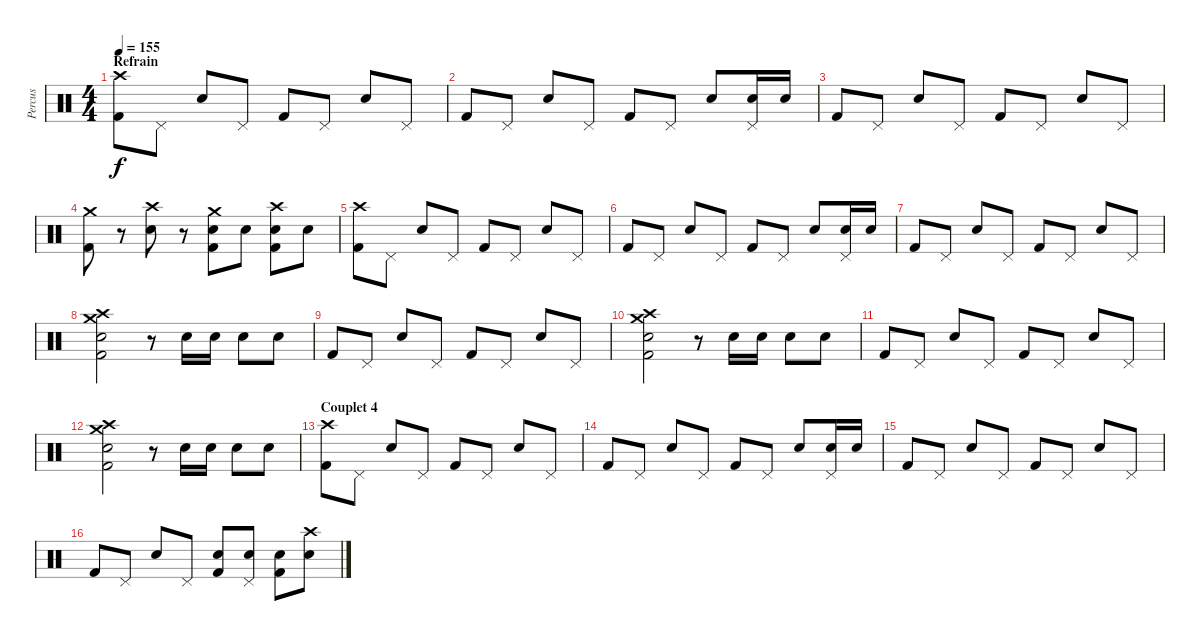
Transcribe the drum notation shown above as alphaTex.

\track ("Percus" "Percus") {instrument percussion}
\staff {score}
\articulation defaults
\ts (4 4)
\section ("" "Refrain")
\tempo 155
\clef neutral
\ks c
("Crash high (hit)" "Kick (hit) 2").8{dy f} "Pedal Hi-Hat (hit)".8 "Snare (hit) 2".8 "Pedal Hi-Hat (hit)".8 "Kick (hit) 2".8 "Pedal Hi-Hat (hit)".8 "Snare (hit) 2".8 "Pedal Hi-Hat (hit)".8 |
"Kick (hit) 2".8 "Pedal Hi-Hat (hit)".8 "Snare (hit) 2".8 "Pedal Hi-Hat (hit)".8 "Kick (hit) 2".8 "Pedal Hi-Hat (hit)".8 "Snare (hit) 2".8 ("Pedal Hi-Hat (hit)" "Snare (hit) 2").16 "Snare (hit) 2".16 |
"Kick (hit) 2".8 "Pedal Hi-Hat (hit)".8 "Snare (hit) 2".8 "Pedal Hi-Hat (hit)".8 "Kick (hit) 2".8 "Pedal Hi-Hat (hit)".8 "Snare (hit) 2".8 "Pedal Hi-Hat (hit)".8 |
("Crash medium (hit)" "Kick (hit) 2").8 r.8 ("Crash high (hit)" "Snare (hit) 2").8 r.8 ("Crash medium (hit)" "Snare (hit) 2" "Kick (hit) 2").8 "Snare (hit) 2".8 ("Crash high (hit)" "Snare (hit) 2" "Kick (hit) 2").8 "Snare (hit) 2".8 |
("Crash high (hit)" "Kick (hit) 2").8 "Pedal Hi-Hat (hit)".8 "Snare (hit) 2".8 "Pedal Hi-Hat (hit)".8 "Kick (hit) 2".8 "Pedal Hi-Hat (hit)".8 "Snare (hit) 2".8 "Pedal Hi-Hat (hit)".8 |
"Kick (hit) 2".8 "Pedal Hi-Hat (hit)".8 "Snare (hit) 2".8 "Pedal Hi-Hat (hit)".8 "Kick (hit) 2".8 "Pedal Hi-Hat (hit)".8 "Snare (hit) 2".8 ("Pedal Hi-Hat (hit)" "Snare (hit) 2").16 "Snare (hit) 2".16 |
"Kick (hit) 2".8 "Pedal Hi-Hat (hit)".8 "Snare (hit) 2".8 "Pedal Hi-Hat (hit)".8 "Kick (hit) 2".8 "Pedal Hi-Hat (hit)".8 "Snare (hit) 2".8 "Pedal Hi-Hat (hit)".8 |
("Crash medium (hit)" "Crash high (hit)" "Snare (hit) 2" "Kick (hit) 2").2 r.8 "Snare (hit) 2".16 "Snare (hit) 2".16 "Snare (hit) 2".8 "Snare (hit) 2".8 |
"Kick (hit) 2".8 "Pedal Hi-Hat (hit)".8 "Snare (hit) 2".8 "Pedal Hi-Hat (hit)".8 "Kick (hit) 2".8 "Pedal Hi-Hat (hit)".8 "Snare (hit) 2".8 "Pedal Hi-Hat (hit)".8 |
("Crash medium (hit)" "Crash high (hit)" "Snare (hit) 2" "Kick (hit) 2").2 r.8 "Snare (hit) 2".16 "Snare (hit) 2".16 "Snare (hit) 2".8 "Snare (hit) 2".8 |
"Kick (hit) 2".8 "Pedal Hi-Hat (hit)".8 "Snare (hit) 2".8 "Pedal Hi-Hat (hit)".8 "Kick (hit) 2".8 "Pedal Hi-Hat (hit)".8 "Snare (hit) 2".8 "Pedal Hi-Hat (hit)".8 |
("Crash medium (hit)" "Crash high (hit)" "Snare (hit) 2" "Kick (hit) 2").2 r.8 "Snare (hit) 2".16 "Snare (hit) 2".16 "Snare (hit) 2".8 "Snare (hit) 2".8 |
\section ("" "Couplet 4")
("Crash high (hit)" "Kick (hit) 2").8 "Pedal Hi-Hat (hit)".8 "Snare (hit) 2".8 "Pedal Hi-Hat (hit)".8 "Kick (hit) 2".8 "Pedal Hi-Hat (hit)".8 "Snare (hit) 2".8 "Pedal Hi-Hat (hit)".8 |
"Kick (hit) 2".8 "Pedal Hi-Hat (hit)".8 "Snare (hit) 2".8 "Pedal Hi-Hat (hit)".8 "Kick (hit) 2".8 "Pedal Hi-Hat (hit)".8 "Snare (hit) 2".8 ("Pedal Hi-Hat (hit)" "Snare (hit) 2").16 "Snare (hit) 2".16 |
"Kick (hit) 2".8 "Pedal Hi-Hat (hit)".8 "Snare (hit) 2".8 "Pedal Hi-Hat (hit)".8 "Kick (hit) 2".8 "Pedal Hi-Hat (hit)".8 "Snare (hit) 2".8 "Pedal Hi-Hat (hit)".8 |
"Kick (hit) 2".8 "Pedal Hi-Hat (hit)".8 "Snare (hit) 2".8 "Pedal Hi-Hat (hit)".8 ("Snare (hit) 2" "Kick (hit) 2").8 ("Pedal Hi-Hat (hit)" "Snare (hit) 2").8 ("Snare (hit) 2" "Kick (hit) 2").8 ("Crash high (hit)" "Snare (hit) 2").8
